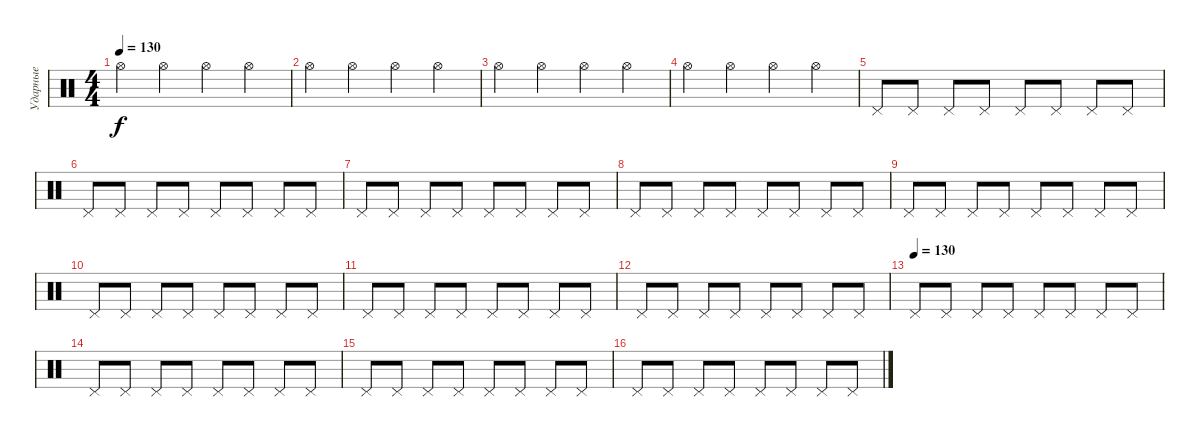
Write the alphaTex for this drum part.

\track ("Ударные" "Ударные") {instrument percussion}
\staff {score}
\articulation defaults
\ts (4 4)
\tempo 130
\clef neutral
\ks c "Hi-Hat (open)".4{dy f} "Hi-Hat (open)".4 "Hi-Hat (open)".4 "Hi-Hat (open)".4
|
"Hi-Hat (open)".4 "Hi-Hat (open)".4 "Hi-Hat (open)".4 "Hi-Hat (open)".4 |
"Hi-Hat (open)".4 "Hi-Hat (open)".4 "Hi-Hat (open)".4 "Hi-Hat (open)".4 |
"Hi-Hat (open)".4 "Hi-Hat (open)".4 "Hi-Hat (open)".4 "Hi-Hat (open)".4 |
"Pedal Hi-Hat (hit)".8 "Pedal Hi-Hat (hit)".8 "Pedal Hi-Hat (hit)".8 "Pedal Hi-Hat (hit)".8 "Pedal Hi-Hat (hit)".8 "Pedal Hi-Hat (hit)".8 "Pedal Hi-Hat (hit)".8 "Pedal Hi-Hat (hit)".8 |
"Pedal Hi-Hat (hit)".8 "Pedal Hi-Hat (hit)".8 "Pedal Hi-Hat (hit)".8 "Pedal Hi-Hat (hit)".8 "Pedal Hi-Hat (hit)".8 "Pedal Hi-Hat (hit)".8 "Pedal Hi-Hat (hit)".8 "Pedal Hi-Hat (hit)".8 |
"Pedal Hi-Hat (hit)".8 "Pedal Hi-Hat (hit)".8 "Pedal Hi-Hat (hit)".8 "Pedal Hi-Hat (hit)".8 "Pedal Hi-Hat (hit)".8 "Pedal Hi-Hat (hit)".8 "Pedal Hi-Hat (hit)".8 "Pedal Hi-Hat (hit)".8 |
"Pedal Hi-Hat (hit)".8 "Pedal Hi-Hat (hit)".8 "Pedal Hi-Hat (hit)".8 "Pedal Hi-Hat (hit)".8 "Pedal Hi-Hat (hit)".8 "Pedal Hi-Hat (hit)".8 "Pedal Hi-Hat (hit)".8 "Pedal Hi-Hat (hit)".8 |
"Pedal Hi-Hat (hit)".8 "Pedal Hi-Hat (hit)".8 "Pedal Hi-Hat (hit)".8 "Pedal Hi-Hat (hit)".8 "Pedal Hi-Hat (hit)".8 "Pedal Hi-Hat (hit)".8 "Pedal Hi-Hat (hit)".8 "Pedal Hi-Hat (hit)".8 |
"Pedal Hi-Hat (hit)".8 "Pedal Hi-Hat (hit)".8 "Pedal Hi-Hat (hit)".8 "Pedal Hi-Hat (hit)".8 "Pedal Hi-Hat (hit)".8 "Pedal Hi-Hat (hit)".8 "Pedal Hi-Hat (hit)".8 "Pedal Hi-Hat (hit)".8 |
"Pedal Hi-Hat (hit)".8 "Pedal Hi-Hat (hit)".8 "Pedal Hi-Hat (hit)".8 "Pedal Hi-Hat (hit)".8 "Pedal Hi-Hat (hit)".8 "Pedal Hi-Hat (hit)".8 "Pedal Hi-Hat (hit)".8 "Pedal Hi-Hat (hit)".8 |
"Pedal Hi-Hat (hit)".8 "Pedal Hi-Hat (hit)".8 "Pedal Hi-Hat (hit)".8 "Pedal Hi-Hat (hit)".8 "Pedal Hi-Hat (hit)".8 "Pedal Hi-Hat (hit)".8 "Pedal Hi-Hat (hit)".8 "Pedal Hi-Hat (hit)".8 |
\tempo (130)
"Pedal Hi-Hat (hit)".8 "Pedal Hi-Hat (hit)".8 "Pedal Hi-Hat (hit)".8 "Pedal Hi-Hat (hit)".8 "Pedal Hi-Hat (hit)".8 "Pedal Hi-Hat (hit)".8 "Pedal Hi-Hat (hit)".8 "Pedal Hi-Hat (hit)".8 |
"Pedal Hi-Hat (hit)".8 "Pedal Hi-Hat (hit)".8 "Pedal Hi-Hat (hit)".8 "Pedal Hi-Hat (hit)".8 "Pedal Hi-Hat (hit)".8 "Pedal Hi-Hat (hit)".8 "Pedal Hi-Hat (hit)".8 "Pedal Hi-Hat (hit)".8 |
"Pedal Hi-Hat (hit)".8 "Pedal Hi-Hat (hit)".8 "Pedal Hi-Hat (hit)".8 "Pedal Hi-Hat (hit)".8 "Pedal Hi-Hat (hit)".8 "Pedal Hi-Hat (hit)".8 "Pedal Hi-Hat (hit)".8 "Pedal Hi-Hat (hit)".8 |
"Pedal Hi-Hat (hit)".8 "Pedal Hi-Hat (hit)".8 "Pedal Hi-Hat (hit)".8 "Pedal Hi-Hat (hit)".8 "Pedal Hi-Hat (hit)".8 "Pedal Hi-Hat (hit)".8 "Pedal Hi-Hat (hit)".8 "Pedal Hi-Hat (hit)".8
